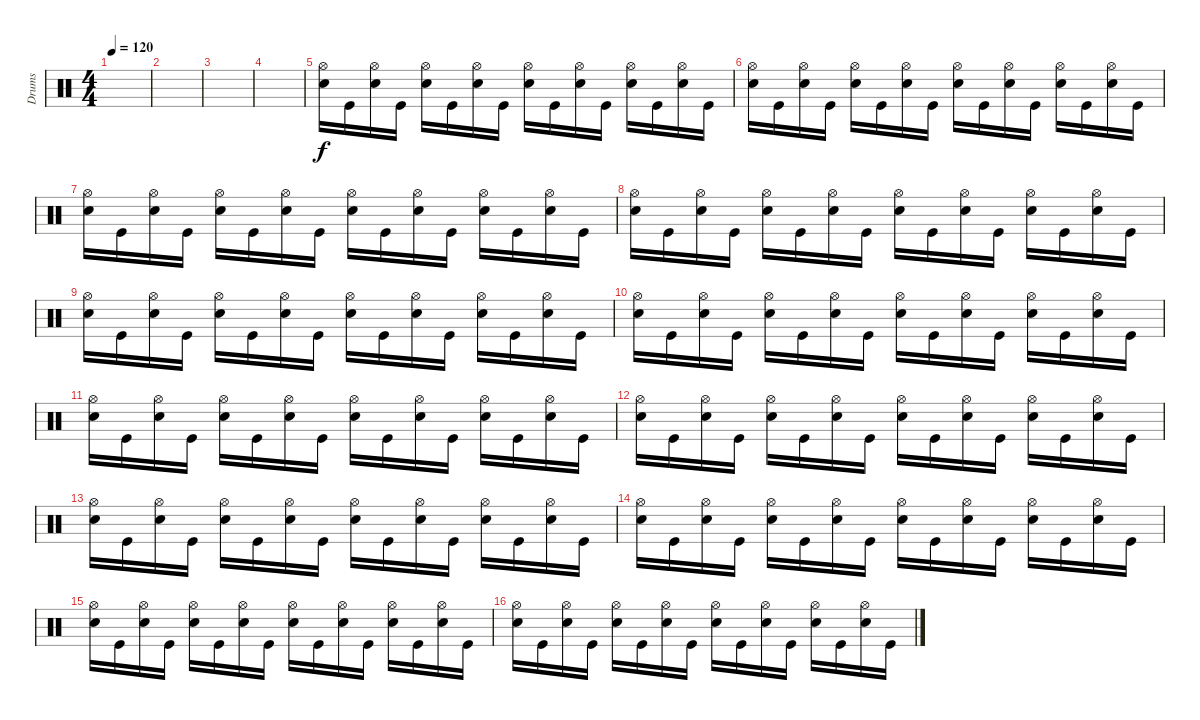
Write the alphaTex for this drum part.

\track ("Drums" "Drums") {instrument percussion}
\staff {score}
\articulation defaults
\ts (4 4)
\tempo 120
\clef neutral
\ks c
|
|
|
|
("Hi-Hat (open)" "Electric Snare (hit)").16 "Kick (hit)".16 ("Hi-Hat (open)" "Electric Snare (hit)").16 "Kick (hit)".16 ("Hi-Hat (open)" "Electric Snare (hit)").16 "Kick (hit)".16 ("Hi-Hat (open)" "Electric Snare (hit)").16 "Kick (hit)".16 ("Hi-Hat (open)" "Electric Snare (hit)").16 "Kick (hit)".16 ("Hi-Hat (open)" "Electric Snare (hit)").16 "Kick (hit)".16 ("Hi-Hat (open)" "Electric Snare (hit)").16 "Kick (hit)".16 ("Hi-Hat (open)" "Electric Snare (hit)").16 "Kick (hit)".16 |
("Hi-Hat (open)" "Electric Snare (hit)").16 "Kick (hit)".16 ("Hi-Hat (open)" "Electric Snare (hit)").16 "Kick (hit)".16 ("Hi-Hat (open)" "Electric Snare (hit)").16 "Kick (hit)".16 ("Hi-Hat (open)" "Electric Snare (hit)").16 "Kick (hit)".16 ("Hi-Hat (open)" "Electric Snare (hit)").16 "Kick (hit)".16 ("Hi-Hat (open)" "Electric Snare (hit)").16 "Kick (hit)".16 ("Hi-Hat (open)" "Electric Snare (hit)").16 "Kick (hit)".16 ("Hi-Hat (open)" "Electric Snare (hit)").16 "Kick (hit)".16 |
("Hi-Hat (open)" "Electric Snare (hit)").16 "Kick (hit)".16 ("Hi-Hat (open)" "Electric Snare (hit)").16 "Kick (hit)".16 ("Hi-Hat (open)" "Electric Snare (hit)").16 "Kick (hit)".16 ("Hi-Hat (open)" "Electric Snare (hit)").16 "Kick (hit)".16 ("Hi-Hat (open)" "Electric Snare (hit)").16 "Kick (hit)".16 ("Hi-Hat (open)" "Electric Snare (hit)").16 "Kick (hit)".16 ("Hi-Hat (open)" "Electric Snare (hit)").16 "Kick (hit)".16 ("Hi-Hat (open)" "Electric Snare (hit)").16 "Kick (hit)".16 |
("Hi-Hat (open)" "Electric Snare (hit)").16 "Kick (hit)".16 ("Hi-Hat (open)" "Electric Snare (hit)").16 "Kick (hit)".16 ("Hi-Hat (open)" "Electric Snare (hit)").16 "Kick (hit)".16 ("Hi-Hat (open)" "Electric Snare (hit)").16 "Kick (hit)".16 ("Hi-Hat (open)" "Electric Snare (hit)").16 "Kick (hit)".16 ("Hi-Hat (open)" "Electric Snare (hit)").16 "Kick (hit)".16 ("Hi-Hat (open)" "Electric Snare (hit)").16 "Kick (hit)".16 ("Hi-Hat (open)" "Electric Snare (hit)").16 "Kick (hit)".16 |
("Hi-Hat (open)" "Electric Snare (hit)").16 "Kick (hit)".16 ("Hi-Hat (open)" "Electric Snare (hit)").16 "Kick (hit)".16 ("Hi-Hat (open)" "Electric Snare (hit)").16 "Kick (hit)".16 ("Hi-Hat (open)" "Electric Snare (hit)").16 "Kick (hit)".16 ("Hi-Hat (open)" "Electric Snare (hit)").16 "Kick (hit)".16 ("Hi-Hat (open)" "Electric Snare (hit)").16 "Kick (hit)".16 ("Hi-Hat (open)" "Electric Snare (hit)").16 "Kick (hit)".16 ("Hi-Hat (open)" "Electric Snare (hit)").16 "Kick (hit)".16 |
("Hi-Hat (open)" "Electric Snare (hit)").16 "Kick (hit)".16 ("Hi-Hat (open)" "Electric Snare (hit)").16 "Kick (hit)".16 ("Hi-Hat (open)" "Electric Snare (hit)").16 "Kick (hit)".16 ("Hi-Hat (open)" "Electric Snare (hit)").16 "Kick (hit)".16 ("Hi-Hat (open)" "Electric Snare (hit)").16 "Kick (hit)".16 ("Hi-Hat (open)" "Electric Snare (hit)").16 "Kick (hit)".16 ("Hi-Hat (open)" "Electric Snare (hit)").16 "Kick (hit)".16 ("Hi-Hat (open)" "Electric Snare (hit)").16 "Kick (hit)".16 |
("Hi-Hat (open)" "Electric Snare (hit)").16 "Kick (hit)".16 ("Hi-Hat (open)" "Electric Snare (hit)").16 "Kick (hit)".16 ("Hi-Hat (open)" "Electric Snare (hit)").16 "Kick (hit)".16 ("Hi-Hat (open)" "Electric Snare (hit)").16 "Kick (hit)".16 ("Hi-Hat (open)" "Electric Snare (hit)").16 "Kick (hit)".16 ("Hi-Hat (open)" "Electric Snare (hit)").16 "Kick (hit)".16 ("Hi-Hat (open)" "Electric Snare (hit)").16 "Kick (hit)".16 ("Hi-Hat (open)" "Electric Snare (hit)").16 "Kick (hit)".16 |
("Hi-Hat (open)" "Electric Snare (hit)").16 "Kick (hit)".16 ("Hi-Hat (open)" "Electric Snare (hit)").16 "Kick (hit)".16 ("Hi-Hat (open)" "Electric Snare (hit)").16 "Kick (hit)".16 ("Hi-Hat (open)" "Electric Snare (hit)").16 "Kick (hit)".16 ("Hi-Hat (open)" "Electric Snare (hit)").16 "Kick (hit)".16 ("Hi-Hat (open)" "Electric Snare (hit)").16 "Kick (hit)".16 ("Hi-Hat (open)" "Electric Snare (hit)").16 "Kick (hit)".16 ("Hi-Hat (open)" "Electric Snare (hit)").16 "Kick (hit)".16 |
("Hi-Hat (open)" "Electric Snare (hit)").16 "Kick (hit)".16 ("Hi-Hat (open)" "Electric Snare (hit)").16 "Kick (hit)".16 ("Hi-Hat (open)" "Electric Snare (hit)").16 "Kick (hit)".16 ("Hi-Hat (open)" "Electric Snare (hit)").16 "Kick (hit)".16 ("Hi-Hat (open)" "Electric Snare (hit)").16 "Kick (hit)".16 ("Hi-Hat (open)" "Electric Snare (hit)").16 "Kick (hit)".16 ("Hi-Hat (open)" "Electric Snare (hit)").16 "Kick (hit)".16 ("Hi-Hat (open)" "Electric Snare (hit)").16 "Kick (hit)".16 |
("Hi-Hat (open)" "Electric Snare (hit)").16 "Kick (hit)".16 ("Hi-Hat (open)" "Electric Snare (hit)").16 "Kick (hit)".16 ("Hi-Hat (open)" "Electric Snare (hit)").16 "Kick (hit)".16 ("Hi-Hat (open)" "Electric Snare (hit)").16 "Kick (hit)".16 ("Hi-Hat (open)" "Electric Snare (hit)").16 "Kick (hit)".16 ("Hi-Hat (open)" "Electric Snare (hit)").16 "Kick (hit)".16 ("Hi-Hat (open)" "Electric Snare (hit)").16 "Kick (hit)".16 ("Hi-Hat (open)" "Electric Snare (hit)").16 "Kick (hit)".16 |
("Hi-Hat (open)" "Electric Snare (hit)").16 "Kick (hit)".16 ("Hi-Hat (open)" "Electric Snare (hit)").16 "Kick (hit)".16 ("Hi-Hat (open)" "Electric Snare (hit)").16 "Kick (hit)".16 ("Hi-Hat (open)" "Electric Snare (hit)").16 "Kick (hit)".16 ("Hi-Hat (open)" "Electric Snare (hit)").16 "Kick (hit)".16 ("Hi-Hat (open)" "Electric Snare (hit)").16 "Kick (hit)".16 ("Hi-Hat (open)" "Electric Snare (hit)").16 "Kick (hit)".16 ("Hi-Hat (open)" "Electric Snare (hit)").16 "Kick (hit)".16 |
("Hi-Hat (open)" "Electric Snare (hit)").16 "Kick (hit)".16 ("Hi-Hat (open)" "Electric Snare (hit)").16 "Kick (hit)".16 ("Hi-Hat (open)" "Electric Snare (hit)").16 "Kick (hit)".16 ("Hi-Hat (open)" "Electric Snare (hit)").16 "Kick (hit)".16 ("Hi-Hat (open)" "Electric Snare (hit)").16 "Kick (hit)".16 ("Hi-Hat (open)" "Electric Snare (hit)").16 "Kick (hit)".16 ("Hi-Hat (open)" "Electric Snare (hit)").16 "Kick (hit)".16 ("Hi-Hat (open)" "Electric Snare (hit)").16 "Kick (hit)".16
